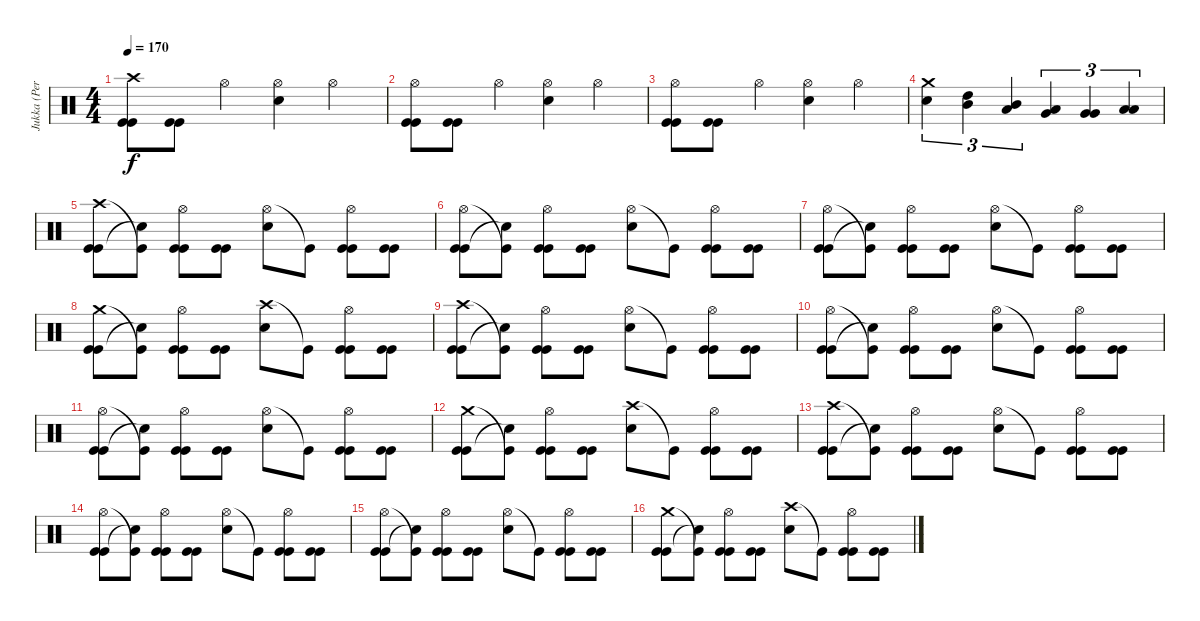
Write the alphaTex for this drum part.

\track ("Jukka (Percussion)" "Jukka (Per") {instrument percussion}
\staff {score}
\articulation defaults
\ts (4 4)
\tempo 170
\clef neutral
\ks c
("Crash high (hit)" "Kick (hit)" "Kick (hit)").8{dy f} ("Kick (hit)" "Kick (hit)").8 "Hi-Hat (open)".4 ("Hi-Hat (open)" "Snare (hit) 2").4 "Hi-Hat (open)".4 |
("Hi-Hat (open)" "Kick (hit)" "Kick (hit)").8 ("Kick (hit)" "Kick (hit)").8 "Hi-Hat (open)".4 ("Hi-Hat (open)" "Snare (hit) 2").4 "Hi-Hat (open)".4 |
("Hi-Hat (open)" "Kick (hit)" "Kick (hit)").8 ("Kick (hit)" "Kick (hit)").8 "Hi-Hat (open)".4 ("Hi-Hat (open)" "Snare (hit) 2").4 "Hi-Hat (open)".4 |
("Crash medium (hit)" "Snare (hit) 2").4{tu (3 2)} ("High Tom (hit)" "Mid Tom (hit)").4{tu (3 2)} ("Mid Tom (hit)" "Low Tom (hit)").4{tu (3 2)} ("Low Tom (hit)" "Very Low Tom (hit)").4{tu (3 2)} ("Very Low Tom (hit)" "Very Low Tom (hit)").4{tu (3 2)} ("Low Floor Tom (hit)" "Low Floor Tom (hit)").4{tu (3 2)} |
("Crash high (hit)" "Kick (hit)" "Kick (hit)").8 ("Kick (hit)"{t} "Snare (hit)"{t}).8 ("Hi-Hat (open)" "Kick (hit)" "Kick (hit)").8 ("Kick (hit)" "Kick (hit)").8 ("Hi-Hat (open)" "Snare (hit) 2").8 "Kick (hit)"{t}.8 ("Hi-Hat (open)" "Kick (hit)" "Kick (hit)").8 ("Kick (hit)" "Kick (hit)").8 |
("Hi-Hat (open)" "Kick (hit)" "Kick (hit)").8 ("Kick (hit)"{t} "Snare (hit)"{t}).8 ("Hi-Hat (open)" "Kick (hit)" "Kick (hit)").8 ("Kick (hit)" "Kick (hit)").8 ("Hi-Hat (open)" "Snare (hit) 2").8 "Kick (hit)"{t}.8 ("Hi-Hat (open)" "Kick (hit)" "Kick (hit)").8 ("Kick (hit)" "Kick (hit)").8 |
("Hi-Hat (open)" "Kick (hit)" "Kick (hit)").8 ("Kick (hit)"{t} "Snare (hit)"{t}).8 ("Hi-Hat (open)" "Kick (hit)" "Kick (hit)").8 ("Kick (hit)" "Kick (hit)").8 ("Hi-Hat (open)" "Snare (hit) 2").8 "Kick (hit)"{t}.8 ("Hi-Hat (open)" "Kick (hit)" "Kick (hit)").8 ("Kick (hit)" "Kick (hit)").8 |
("Crash medium (hit)" "Kick (hit)" "Kick (hit)").8 ("Kick (hit)"{t} "Snare (hit)"{t}).8 ("Hi-Hat (open)" "Kick (hit)" "Kick (hit)").8 ("Kick (hit)" "Kick (hit)").8 ("Crash high (hit)" "Snare (hit) 2").8 "Kick (hit)"{t}.8 ("Hi-Hat (open)" "Kick (hit)" "Kick (hit)").8 ("Kick (hit)" "Kick (hit)").8 |
("Crash high (hit)" "Kick (hit)" "Kick (hit)").8 ("Kick (hit)"{t} "Snare (hit)"{t}).8 ("Hi-Hat (open)" "Kick (hit)" "Kick (hit)").8 ("Kick (hit)" "Kick (hit)").8 ("Hi-Hat (open)" "Snare (hit) 2").8 "Kick (hit)"{t}.8 ("Hi-Hat (open)" "Kick (hit)" "Kick (hit)").8 ("Kick (hit)" "Kick (hit)").8 |
("Hi-Hat (open)" "Kick (hit)" "Kick (hit)").8 ("Kick (hit)"{t} "Snare (hit)"{t}).8 ("Hi-Hat (open)" "Kick (hit)" "Kick (hit)").8 ("Kick (hit)" "Kick (hit)").8 ("Hi-Hat (open)" "Snare (hit) 2").8 "Kick (hit)"{t}.8 ("Hi-Hat (open)" "Kick (hit)" "Kick (hit)").8 ("Kick (hit)" "Kick (hit)").8 |
("Hi-Hat (open)" "Kick (hit)" "Kick (hit)").8 ("Kick (hit)"{t} "Snare (hit)"{t}).8 ("Hi-Hat (open)" "Kick (hit)" "Kick (hit)").8 ("Kick (hit)" "Kick (hit)").8 ("Hi-Hat (open)" "Snare (hit) 2").8 "Kick (hit)"{t}.8 ("Hi-Hat (open)" "Kick (hit)" "Kick (hit)").8 ("Kick (hit)" "Kick (hit)").8 |
("Crash medium (hit)" "Kick (hit)" "Kick (hit)").8 ("Kick (hit)"{t} "Snare (hit)"{t}).8 ("Hi-Hat (open)" "Kick (hit)" "Kick (hit)").8 ("Kick (hit)" "Kick (hit)").8 ("Crash high (hit)" "Snare (hit) 2").8 "Kick (hit)"{t}.8 ("Hi-Hat (open)" "Kick (hit)" "Kick (hit)").8 ("Kick (hit)" "Kick (hit)").8 |
("Crash high (hit)" "Kick (hit)" "Kick (hit)").8 ("Kick (hit)"{t} "Snare (hit)"{t}).8 ("Hi-Hat (open)" "Kick (hit)" "Kick (hit)").8 ("Kick (hit)" "Kick (hit)").8 ("Hi-Hat (open)" "Snare (hit) 2").8 "Kick (hit)"{t}.8 ("Hi-Hat (open)" "Kick (hit)" "Kick (hit)").8 ("Kick (hit)" "Kick (hit)").8 |
("Hi-Hat (open)" "Kick (hit)" "Kick (hit)").8 ("Kick (hit)"{t} "Snare (hit)"{t}).8 ("Hi-Hat (open)" "Kick (hit)" "Kick (hit)").8 ("Kick (hit)" "Kick (hit)").8 ("Hi-Hat (open)" "Snare (hit) 2").8 "Kick (hit)"{t}.8 ("Hi-Hat (open)" "Kick (hit)" "Kick (hit)").8 ("Kick (hit)" "Kick (hit)").8 |
("Hi-Hat (open)" "Kick (hit)" "Kick (hit)").8 ("Kick (hit)"{t} "Snare (hit)"{t}).8 ("Hi-Hat (open)" "Kick (hit)" "Kick (hit)").8 ("Kick (hit)" "Kick (hit)").8 ("Hi-Hat (open)" "Snare (hit) 2").8 "Kick (hit)"{t}.8 ("Hi-Hat (open)" "Kick (hit)" "Kick (hit)").8 ("Kick (hit)" "Kick (hit)").8 |
("Crash medium (hit)" "Kick (hit)" "Kick (hit)").8 ("Kick (hit)"{t} "Snare (hit)"{t}).8 ("Hi-Hat (open)" "Kick (hit)" "Kick (hit)").8 ("Kick (hit)" "Kick (hit)").8 ("Crash high (hit)" "Snare (hit) 2").8 "Kick (hit)"{t}.8 ("Hi-Hat (open)" "Kick (hit)" "Kick (hit)").8 ("Kick (hit)" "Kick (hit)").8
